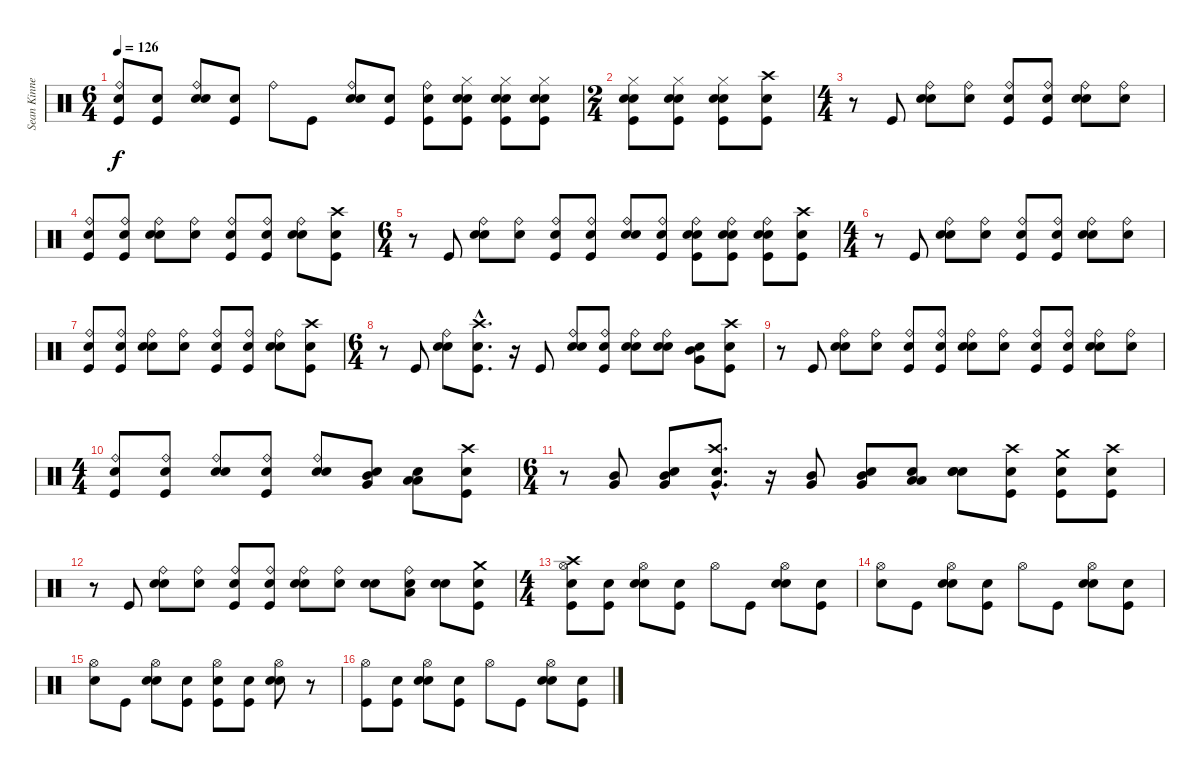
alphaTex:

\track ("Sean Kinney (Drums)" "Sean Kinne") {instrument percussion}
\staff {score}
\articulation defaults
\ts (6 4)
\tempo 126
\clef neutral
\ks c
("Snare (hit)" "Ride (bell)" "Kick (hit)").8{dy f} ("Snare (hit)" "Kick (hit)").8 ("Snare (hit)" "Ride (bell)" "Electric Snare (hit)").8 ("Snare (hit)" "Kick (hit)").8 "Ride (bell)".8 "Kick (hit)".8 ("Snare (hit)" "Ride (bell)" "Electric Snare (hit)").8 ("Snare (hit)" "Kick (hit)").8 ("Snare (hit)" "Kick (hit)" "Ride (bell)").8 ("Snare (hit)" "Electric Snare (hit)" "Kick (hit)" "Hi-Hat (closed)").8 ("Snare (hit)" "Kick (hit)" "Hi-Hat (closed)" "Electric Snare (hit)").8 ("Snare (hit)" "Kick (hit)" "Electric Snare (hit)" "Hi-Hat (closed)").8 |
\ts (2 4)
("Snare (hit)" "Kick (hit)" "Electric Snare (hit)" "Hi-Hat (closed)").8 ("Snare (hit)" "Hi-Hat (closed)" "Electric Snare (hit)" "Kick (hit)").8 ("Snare (hit)" "Hi-Hat (closed)" "Kick (hit)" "Electric Snare (hit)").8 ("Snare (hit)" "Crash high (hit)" "Kick (hit)").8 |
\ts (4 4)
r.8 "Kick (hit)".8 ("Snare (hit)" "Electric Snare (hit)" "Ride (bell)").8 ("Snare (hit)" "Ride (bell)").8 ("Snare (hit)" "Ride (bell)" "Kick (hit)").8 ("Snare (hit)" "Ride (bell)" "Kick (hit)").8 ("Snare (hit)" "Electric Snare (hit)" "Ride (bell)").8 ("Snare (hit)" "Ride (bell)").8 |
("Snare (hit)" "Ride (bell)" "Kick (hit)").8 ("Snare (hit)" "Kick (hit)" "Ride (bell)").8 ("Snare (hit)" "Electric Snare (hit)" "Ride (bell)").8 ("Snare (hit)" "Ride (bell)").8 ("Snare (hit)" "Ride (bell)" "Kick (hit)").8 ("Snare (hit)" "Ride (bell)" "Kick (hit)").8 ("Snare (hit)" "Ride (bell)" "Electric Snare (hit)").8 ("Snare (hit)" "Kick (hit)" "Crash high (hit)").8 |
\ts (6 4)
r.8 "Kick (hit)".8 ("Snare (hit)" "Ride (bell)" "Electric Snare (hit)").8 ("Snare (hit)" "Ride (bell)").8 ("Snare (hit)" "Ride (bell)" "Kick (hit)").8 ("Snare (hit)" "Ride (bell)" "Kick (hit)").8 ("Snare (hit)" "Ride (bell)" "Electric Snare (hit)").8 ("Snare (hit)" "Ride (bell)" "Kick (hit)").8 ("Snare (hit)" "Ride (bell)" "Kick (hit)" "Electric Snare (hit)").8 ("Snare (hit)" "Ride (bell)" "Electric Snare (hit)" "Kick (hit)").8 ("Snare (hit)" "Kick (hit)" "Ride (bell)" "Electric Snare (hit)").8 ("Snare (hit)" "Crash high (hit)" "Kick (hit)").8 |
\ts (4 4)
r.8 "Kick (hit)".8 ("Snare (hit)" "Electric Snare (hit)" "Ride (bell)").8 ("Snare (hit)" "Ride (bell)").8 ("Snare (hit)" "Ride (bell)" "Kick (hit)").8 ("Snare (hit)" "Kick (hit)" "Ride (bell)").8 ("Snare (hit)" "Electric Snare (hit)" "Ride (bell)").8 ("Snare (hit)" "Ride (bell)").8 |
("Snare (hit)" "Ride (bell)" "Kick (hit)").8 ("Snare (hit)" "Ride (bell)" "Kick (hit)").8 ("Snare (hit)" "Ride (bell)" "Electric Snare (hit)").8 ("Snare (hit)" "Ride (bell)").8 ("Snare (hit)" "Ride (bell)" "Kick (hit)").8 ("Snare (hit)" "Kick (hit)" "Ride (bell)").8 ("Snare (hit)" "Electric Snare (hit)" "Ride (bell)").8 ("Snare (hit)" "Crash high (hit)" "Kick (hit)").8 |
\ts (6 4)
r.8 "Kick (hit)".8 ("Snare (hit)" "Ride (bell)" "Electric Snare (hit)").8 ("Snare (hit)"{hac} "Crash high (hit)"{hac} "Kick (hit)"{hac}).8{d} r.16 "Kick (hit)".8 ("Snare (hit)" "Electric Snare (hit)" "Ride (bell)").8 ("Snare (hit)" "Kick (hit)" "Ride (bell)").8 ("Snare (hit)" "Ride (bell)" "Electric Snare (hit)").8 ("Snare (hit)" "Ride (bell)" "Electric Snare (hit)").8 ("Snare (hit)" "Mid Tom (hit)" "Very Low Tom (hit)").8 ("Snare (hit)" "Crash high (hit)" "Kick (hit)").8 |
r.8 "Kick (hit)".8 ("Snare (hit)" "Ride (bell)" "Electric Snare (hit)").8 ("Snare (hit)" "Ride (bell)").8 ("Snare (hit)" "Ride (bell)" "Kick (hit)").8 ("Snare (hit)" "Ride (bell)" "Kick (hit)").8 ("Snare (hit)" "Ride (bell)" "Electric Snare (hit)").8 ("Snare (hit)" "Ride (bell)").8 ("Snare (hit)" "Kick (hit)" "Ride (bell)").8 ("Snare (hit)" "Ride (bell)" "Kick (hit)").8 ("Snare (hit)" "Ride (bell)" "Electric Snare (hit)").8 ("Snare (hit)" "Ride (bell)").8 |
\ts (4 4)
("Snare (hit)" "Ride (bell)" "Kick (hit)").8 ("Snare (hit)" "Ride (bell)" "Kick (hit)").8 ("Snare (hit)" "Ride (bell)" "Electric Snare (hit)").8 ("Snare (hit)" "Kick (hit)" "Ride (bell)").8 ("Snare (hit)" "Ride (bell)" "Electric Snare (hit)").8 ("Snare (hit)" "Very Low Tom (hit)" "Mid Tom (hit)").8 ("Snare (hit)" "Low Tom (hit)" "Low Floor Tom (hit)").8 ("Snare (hit)" "Kick (hit)" "Crash high (hit)").8 |
\ts (6 4)
r.8 ("Mid Tom (hit)" "Very Low Tom (hit)").8 ("Snare (hit)" "Very Low Tom (hit)" "Mid Tom (hit)").8 ("Snare (hit)"{hac} "Very Low Tom (hit)"{hac} "Crash high (hit)"{hac}).8{d} r.16 ("Very Low Tom (hit)" "Mid Tom (hit)").8 ("Snare (hit)" "Very Low Tom (hit)" "Mid Tom (hit)").8 ("Snare (hit)" "Low Floor Tom (hit)" "Low Tom (hit)").8 ("Snare (hit)" "Electric Snare (hit)" "Snare (hit) 2").8 ("Snare (hit)" "Kick (hit)" "Crash high (hit)").8 ("Snare (hit)" "Crash medium (hit)" "Kick (hit)").8 ("Snare (hit)" "Kick (hit)" "Crash high (hit)").8 |
r.8 "Kick (hit)".8 ("Snare (hit)" "Ride (bell)" "Electric Snare (hit)").8 ("Snare (hit)" "Ride (bell)").8 ("Snare (hit)" "Kick (hit)" "Ride (bell)").8 ("Snare (hit)" "Ride (bell)" "Kick (hit)").8 ("Snare (hit)" "Ride (bell)" "Electric Snare (hit)").8 ("Snare (hit)" "Ride (bell)").8 ("Snare (hit)" "Electric Snare (hit)").8 ("Snare (hit)" "Ride (bell)" "Low Tom (hit)").8 ("Snare (hit)" "Electric Snare (hit)").8 ("Snare (hit)" "Crash medium (hit)" "Kick (hit)").8 |
\ts (4 4)
("Snare (hit)" "Kick (hit)" "Hi-Hat (open)" "Crash high (hit)").8 ("Snare (hit)" "Kick (hit)").8 ("Snare (hit)" "Electric Snare (hit)" "Hi-Hat (open)").8 ("Snare (hit)" "Kick (hit)").8 "Hi-Hat (open)".8 "Kick (hit)".8 ("Snare (hit)" "Hi-Hat (open)" "Electric Snare (hit)").8 ("Snare (hit)" "Kick (hit)").8 |
("Snare (hit)" "Hi-Hat (open)").8 "Kick (hit)".8 ("Snare (hit)" "Hi-Hat (open)" "Electric Snare (hit)").8 ("Snare (hit)" "Kick (hit)").8 "Hi-Hat (open)".8 "Kick (hit)".8 ("Snare (hit)" "Electric Snare (hit)" "Hi-Hat (open)").8 ("Snare (hit)" "Kick (hit)").8 |
("Snare (hit)" "Hi-Hat (open)").8 "Kick (hit)".8 ("Snare (hit)" "Electric Snare (hit)" "Hi-Hat (open)").8 ("Snare (hit)" "Kick (hit)").8 ("Snare (hit)" "Kick (hit)" "Hi-Hat (open)").8 ("Snare (hit)" "Kick (hit)").8 ("Snare (hit)" "Electric Snare (hit)" "Hi-Hat (open)").8 r.8 |
("Kick (hit)" "Hi-Hat (open)").8 ("Snare (hit)" "Kick (hit)").8 ("Snare (hit)" "Electric Snare (hit)" "Hi-Hat (open)").8 ("Snare (hit)" "Kick (hit)").8 "Hi-Hat (open)".8 "Kick (hit)".8 ("Snare (hit)" "Hi-Hat (open)" "Electric Snare (hit)").8 ("Snare (hit)" "Kick (hit)").8
